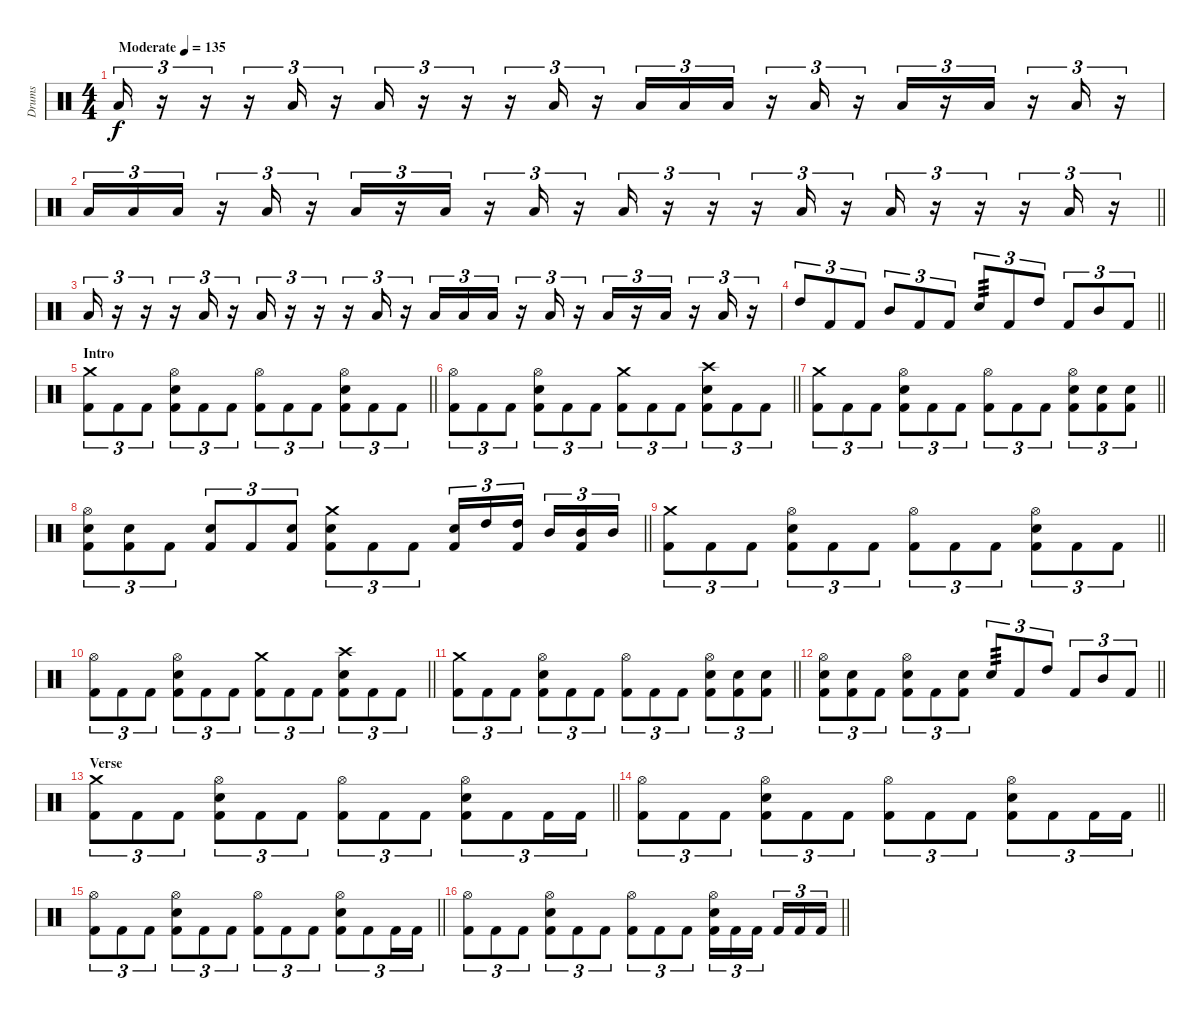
\track ("Drums" "Drums") {instrument percussion}
\staff {score}
\articulation defaults
\ts (4 4)
\tempo (135 "Moderate")
\clef neutral
\ks c "Low Tom (hit)".16{tu (3 2) dy f}
r.16{tu (3 2)} r.16{tu (3 2)} r.16{tu (3 2)} "Low Tom (hit)".16{tu (3 2)} r.16{tu (3 2)} "Low Tom (hit)".16{tu (3 2)} r.16{tu (3 2)} r.16{tu (3 2)} r.16{tu (3 2)} "Low Tom (hit)".16{tu (3 2)} r.16{tu (3 2)} "Low Tom (hit)".16{tu (3 2)} "Low Tom (hit)".16{tu (3 2)} "Low Tom (hit)".16{tu (3 2)} r.16{tu (3 2)} "Low Tom (hit)".16{tu (3 2)} r.16{tu (3 2)} "Low Tom (hit)".16{tu (3 2)} r.16{tu (3 2)} "Low Tom (hit)".16{tu (3 2)} r.16{tu (3 2)} "Low Tom (hit)".16{tu (3 2)} r.16{tu (3 2)} |
\barLineRight lightlight "Low Tom (hit)".16{tu (3 2)} "Low Tom (hit)".16{tu (3 2)} "Low Tom (hit)".16{tu (3 2)}
r.16{tu (3 2)} "Low Tom (hit)".16{tu (3 2)} r.16{tu (3 2)} "Low Tom (hit)".16{tu (3 2)} r.16{tu (3 2)} "Low Tom (hit)".16{tu (3 2)} r.16{tu (3 2)} "Low Tom (hit)".16{tu (3 2)} r.16{tu (3 2)} "Low Tom (hit)".16{tu (3 2)} r.16{tu (3 2)} r.16{tu (3 2)} r.16{tu (3 2)} "Low Tom (hit)".16{tu (3 2)} r.16{tu (3 2)} "Low Tom (hit)".16{tu (3 2)} r.16{tu (3 2)} r.16{tu (3 2)} r.16{tu (3 2)} "Low Tom (hit)".16{tu (3 2)} r.16{tu (3 2)} |
"Low Tom (hit)".16{tu (3 2)} r.16{tu (3 2)} r.16{tu (3 2)} r.16{tu (3 2)} "Low Tom (hit)".16{tu (3 2)} r.16{tu (3 2)} "Low Tom (hit)".16{tu (3 2)} r.16{tu (3 2)} r.16{tu (3 2)} r.16{tu (3 2)} "Low Tom (hit)".16{tu (3 2)} r.16{tu (3 2)} "Low Tom (hit)".16{tu (3 2)} "Low Tom (hit)".16{tu (3 2)} "Low Tom (hit)".16{tu (3 2)} r.16{tu (3 2)} "Low Tom (hit)".16{tu (3 2)} r.16{tu (3 2)} "Low Tom (hit)".16{tu (3 2)} r.16{tu (3 2)} "Low Tom (hit)".16{tu (3 2)} r.16{tu (3 2)} "Low Tom (hit)".16{tu (3 2)} r.16{tu (3 2)} |
\barLineRight lightlight "High Tom (hit)".8{tu (3 2)} "Kick (hit) 2".8{tu (3 2)} "Kick (hit) 2".8{tu (3 2)} "Mid Tom (hit)".8{tu (3 2)} "Kick (hit) 2".8{tu (3 2)} "Kick (hit) 2".8{tu (3 2)} "Snare (hit) 2".8{tu (3 2) tp 3} "Kick (hit) 2".8{tu (3 2)} "High Tom (hit)".8{tu (3 2)} "Kick (hit) 2".8{tu (3 2)} "Mid Tom (hit)".8{tu (3 2)} "Kick (hit) 2".8{tu (3 2)}
|
\section ("" "Intro")
\barLineRight lightlight
("Crash medium (hit)" "Kick (hit) 2").8{tu (3 2)} "Kick (hit) 2".8{tu (3 2)} "Kick (hit) 2".8{tu (3 2)} ("Hi-Hat (open)" "Snare (hit) 2" "Kick (hit) 2").8{tu (3 2)} "Kick (hit) 2".8{tu (3 2)} "Kick (hit) 2".8{tu (3 2)} ("Hi-Hat (open)" "Kick (hit) 2").8{tu (3 2)} "Kick (hit) 2".8{tu (3 2)} "Kick (hit) 2".8{tu (3 2)} ("Hi-Hat (open)" "Snare (hit) 2" "Kick (hit) 2").8{tu (3 2)} "Kick (hit) 2".8{tu (3 2)} "Kick (hit) 2".8{tu (3 2)} |
\barLineRight lightlight
("Hi-Hat (open)" "Kick (hit) 2").8{tu (3 2)} "Kick (hit) 2".8{tu (3 2)} "Kick (hit) 2".8{tu (3 2)} ("Hi-Hat (open)" "Snare (hit) 2" "Kick (hit) 2").8{tu (3 2)} "Kick (hit) 2".8{tu (3 2)} "Kick (hit) 2".8{tu (3 2)} ("Crash medium (hit)" "Kick (hit) 2").8{tu (3 2)} "Kick (hit) 2".8{tu (3 2)} "Kick (hit) 2".8{tu (3 2)} ("Crash high (hit)" "Snare (hit) 2" "Kick (hit) 2").8{tu (3 2)} "Kick (hit) 2".8{tu (3 2)} "Kick (hit) 2".8{tu (3 2)} |
\barLineRight lightlight
("Crash medium (hit)" "Kick (hit) 2").8{tu (3 2)} "Kick (hit) 2".8{tu (3 2)} "Kick (hit) 2".8{tu (3 2)} ("Hi-Hat (open)" "Snare (hit) 2" "Kick (hit) 2").8{tu (3 2)} "Kick (hit) 2".8{tu (3 2)} "Kick (hit) 2".8{tu (3 2)} ("Hi-Hat (open)" "Kick (hit) 2").8{tu (3 2)} "Kick (hit) 2".8{tu (3 2)} "Kick (hit) 2".8{tu (3 2)} ("Hi-Hat (open)" "Snare (hit) 2" "Kick (hit) 2").8{tu (3 2)} ("Snare (hit) 2" "Kick (hit) 2").8{tu (3 2)} ("Snare (hit) 2" "Kick (hit) 2").8{tu (3 2)} |
\barLineRight lightlight
("Hi-Hat (open)" "Snare (hit) 2" "Kick (hit) 2").8{tu (3 2)} ("Snare (hit) 2" "Kick (hit) 2").8{tu (3 2)} "Kick (hit) 2".8{tu (3 2)} ("Snare (hit) 2" "Kick (hit) 2").8{tu (3 2)} "Kick (hit) 2".8{tu (3 2)} ("Snare (hit) 2" "Kick (hit) 2").8{tu (3 2)} ("Crash medium (hit)" "Snare (hit) 2" "Kick (hit) 2").8{tu (3 2)} "Kick (hit) 2".8{tu (3 2)} "Kick (hit) 2".8{tu (3 2)} ("Snare (hit) 2" "Kick (hit) 2").16{tu (3 2)} "High Tom (hit)".16{tu (3 2)} ("High Tom (hit)" "Kick (hit) 2").16{tu (3 2) beam splitsecondary} "Mid Tom (hit)".16{tu (3 2)} ("Mid Tom (hit)" "Kick (hit) 2").16{tu (3 2)} "Mid Tom (hit)".16{tu (3 2)} |
\barLineRight lightlight
("Crash medium (hit)" "Kick (hit) 2").8{tu (3 2)} "Kick (hit) 2".8{tu (3 2)} "Kick (hit) 2".8{tu (3 2)} ("Hi-Hat (open)" "Snare (hit) 2" "Kick (hit) 2").8{tu (3 2)} "Kick (hit) 2".8{tu (3 2)} "Kick (hit) 2".8{tu (3 2)} ("Hi-Hat (open)" "Kick (hit) 2").8{tu (3 2)} "Kick (hit) 2".8{tu (3 2)} "Kick (hit) 2".8{tu (3 2)} ("Hi-Hat (open)" "Snare (hit) 2" "Kick (hit) 2").8{tu (3 2)} "Kick (hit) 2".8{tu (3 2)} "Kick (hit) 2".8{tu (3 2)} |
\barLineRight lightlight
("Hi-Hat (open)" "Kick (hit) 2").8{tu (3 2)} "Kick (hit) 2".8{tu (3 2)} "Kick (hit) 2".8{tu (3 2)} ("Hi-Hat (open)" "Snare (hit) 2" "Kick (hit) 2").8{tu (3 2)} "Kick (hit) 2".8{tu (3 2)} "Kick (hit) 2".8{tu (3 2)} ("Crash medium (hit)" "Kick (hit) 2").8{tu (3 2)} "Kick (hit) 2".8{tu (3 2)} "Kick (hit) 2".8{tu (3 2)} ("Crash high (hit)" "Snare (hit) 2" "Kick (hit) 2").8{tu (3 2)} "Kick (hit) 2".8{tu (3 2)} "Kick (hit) 2".8{tu (3 2)} |
\barLineRight lightlight
("Crash medium (hit)" "Kick (hit) 2").8{tu (3 2)} "Kick (hit) 2".8{tu (3 2)} "Kick (hit) 2".8{tu (3 2)} ("Hi-Hat (open)" "Snare (hit) 2" "Kick (hit) 2").8{tu (3 2)} "Kick (hit) 2".8{tu (3 2)} "Kick (hit) 2".8{tu (3 2)} ("Hi-Hat (open)" "Kick (hit) 2").8{tu (3 2)} "Kick (hit) 2".8{tu (3 2)} "Kick (hit) 2".8{tu (3 2)} ("Hi-Hat (open)" "Snare (hit) 2" "Kick (hit) 2").8{tu (3 2)} ("Snare (hit) 2" "Kick (hit) 2").8{tu (3 2)} ("Snare (hit) 2" "Kick (hit) 2").8{tu (3 2)} |
\barLineRight lightlight
("Hi-Hat (open)" "Snare (hit) 2" "Kick (hit) 2").8{tu (3 2)} ("Snare (hit) 2" "Kick (hit) 2").8{tu (3 2)} "Kick (hit) 2".8{tu (3 2)} ("Hi-Hat (open)" "Snare (hit) 2" "Kick (hit) 2").8{tu (3 2)} "Kick (hit) 2".8{tu (3 2)} ("Snare (hit) 2" "Kick (hit) 2").8{tu (3 2)} "Snare (hit) 2".8{tu (3 2) tp 3} "Kick (hit) 2".8{tu (3 2)} "High Tom (hit)".8{tu (3 2)} "Kick (hit) 2".8{tu (3 2)} "Mid Tom (hit)".8{tu (3 2)} "Kick (hit) 2".8{tu (3 2)} |
\section ("" "Verse")
\barLineRight lightlight
("Crash medium (hit)" "Kick (hit) 2").8{tu (3 2)} "Kick (hit) 2".8{tu (3 2)} "Kick (hit) 2".8{tu (3 2)} ("Hi-Hat (open)" "Snare (hit) 2" "Kick (hit) 2").8{tu (3 2)} "Kick (hit) 2".8{tu (3 2)} "Kick (hit) 2".8{tu (3 2)} ("Hi-Hat (open)" "Kick (hit) 2").8{tu (3 2)} "Kick (hit) 2".8{tu (3 2)} "Kick (hit) 2".8{tu (3 2)} ("Hi-Hat (open)" "Snare (hit) 2" "Kick (hit) 2").8{tu (3 2)} "Kick (hit) 2".8{tu (3 2)} "Kick (hit) 2".16{tu (3 2)} "Kick (hit) 2".16{tu (3 2)} |
\barLineRight lightlight
("Hi-Hat (open)" "Kick (hit) 2").8{tu (3 2)} "Kick (hit) 2".8{tu (3 2)} "Kick (hit) 2".8{tu (3 2)} ("Hi-Hat (open)" "Snare (hit) 2" "Kick (hit) 2").8{tu (3 2)} "Kick (hit) 2".8{tu (3 2)} "Kick (hit) 2".8{tu (3 2)} ("Hi-Hat (open)" "Kick (hit) 2").8{tu (3 2)} "Kick (hit) 2".8{tu (3 2)} "Kick (hit) 2".8{tu (3 2)} ("Hi-Hat (open)" "Snare (hit) 2" "Kick (hit) 2").8{tu (3 2)} "Kick (hit) 2".8{tu (3 2)} "Kick (hit) 2".16{tu (3 2)} "Kick (hit) 2".16{tu (3 2)} |
\barLineRight lightlight
("Hi-Hat (open)" "Kick (hit) 2").8{tu (3 2)} "Kick (hit) 2".8{tu (3 2)} "Kick (hit) 2".8{tu (3 2)} ("Hi-Hat (open)" "Snare (hit) 2" "Kick (hit) 2").8{tu (3 2)} "Kick (hit) 2".8{tu (3 2)} "Kick (hit) 2".8{tu (3 2)} ("Hi-Hat (open)" "Kick (hit) 2").8{tu (3 2)} "Kick (hit) 2".8{tu (3 2)} "Kick (hit) 2".8{tu (3 2)} ("Hi-Hat (open)" "Snare (hit) 2" "Kick (hit) 2").8{tu (3 2)} "Kick (hit) 2".8{tu (3 2)} "Kick (hit) 2".16{tu (3 2)} "Kick (hit) 2".16{tu (3 2)} |
\barLineRight lightlight
("Hi-Hat (open)" "Kick (hit) 2").8{tu (3 2)} "Kick (hit) 2".8{tu (3 2)} "Kick (hit) 2".8{tu (3 2)} ("Hi-Hat (open)" "Snare (hit) 2" "Kick (hit) 2").8{tu (3 2)} "Kick (hit) 2".8{tu (3 2)} "Kick (hit) 2".8{tu (3 2)} ("Hi-Hat (open)" "Kick (hit) 2").8{tu (3 2)} "Kick (hit) 2".8{tu (3 2)} "Kick (hit) 2".8{tu (3 2)} ("Hi-Hat (open)" "Snare (hit) 2" "Kick (hit) 2").16{tu (3 2)} "Kick (hit) 2".16{tu (3 2)} "Kick (hit) 2".16{tu (3 2) beam splitsecondary} "Kick (hit) 2".16{tu (3 2)} "Kick (hit) 2".16{tu (3 2)} "Kick (hit) 2".16{tu (3 2)}
